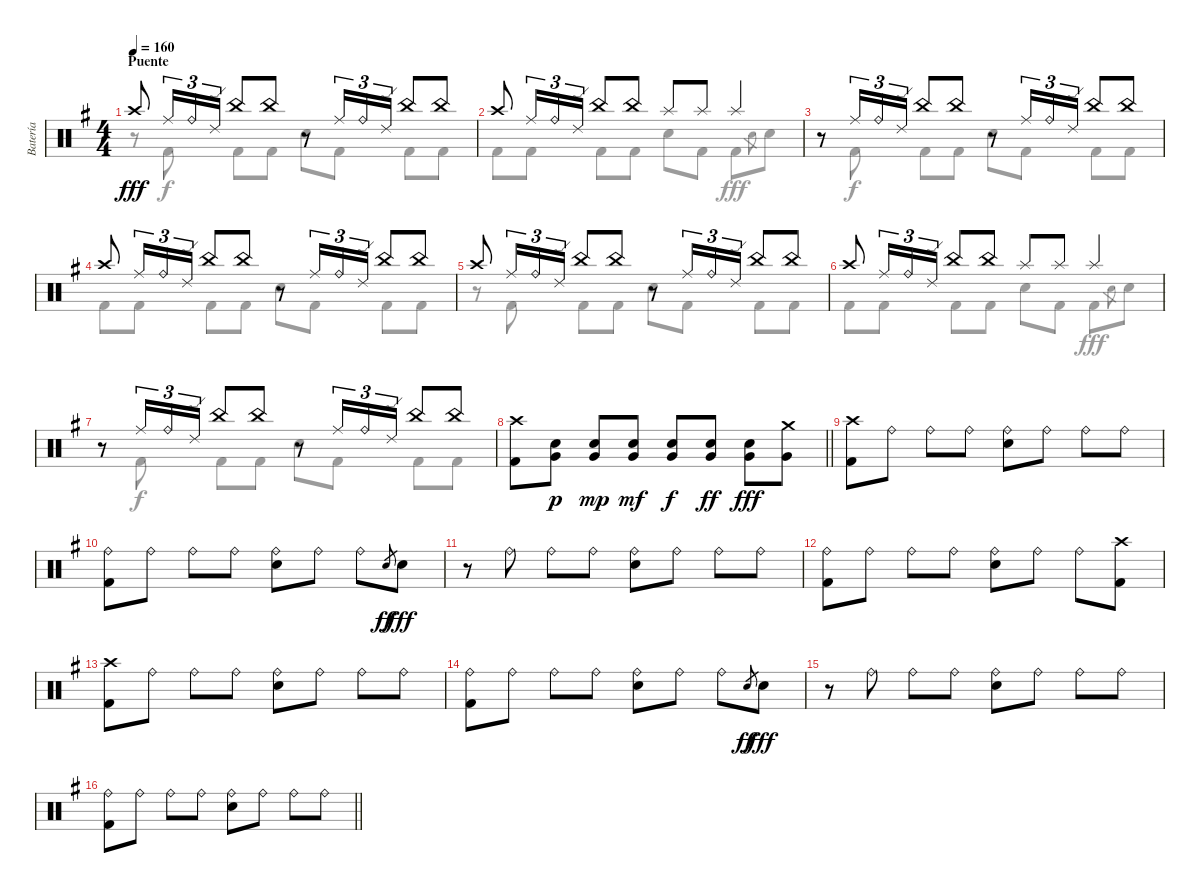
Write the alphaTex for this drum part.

\track ("Batería" "Batería") {instrument percussion}
\staff {score}
\articulation defaults
\voice
\ts (4 4)
\section ("" "Puente")
\tempo 160
\clef neutral
\ks g "Crash high (hit)".8{dy fff} "Ride (middle)".16{tu (3 2)} "Ride (bell)".16{tu (3 2)} "Ride (edge) 2".16{tu (3 2)} "China (hit)".8 "China (hit)".8
r.8 "Ride (middle)".16{tu (3 2)} "Ride (bell)".16{tu (3 2)} "Ride (edge) 2".16{tu (3 2)} "China (hit)".8 "China (hit)".8 |
"Crash high (hit)".8 "Ride (middle)".16{tu (3 2)} "Ride (bell)".16{tu (3 2)} "Ride (edge) 2".16{tu (3 2)} "China (hit)".8 "China (hit)".8 "Splash (hit)".8 "Splash (hit)".8 "Splash (hit)".4 |
r.8 "Ride (middle)".16{tu (3 2)} "Ride (bell)".16{tu (3 2)} "Ride (edge) 2".16{tu (3 2)} "China (hit)".8 "China (hit)".8 r.8 "Ride (middle)".16{tu (3 2)} "Ride (bell)".16{tu (3 2)} "Ride (edge) 2".16{tu (3 2)} "China (hit)".8 "China (hit)".8 |
"Crash high (hit)".8 "Ride (middle)".16{tu (3 2)} "Ride (bell)".16{tu (3 2)} "Ride (edge) 2".16{tu (3 2)} "China (hit)".8 "China (hit)".8 r.8 "Ride (middle)".16{tu (3 2)} "Ride (bell)".16{tu (3 2)} "Ride (edge) 2".16{tu (3 2)} "China (hit)".8 "China (hit)".8 |
"Crash high (hit)".8 "Ride (middle)".16{tu (3 2)} "Ride (bell)".16{tu (3 2)} "Ride (edge) 2".16{tu (3 2)} "China (hit)".8 "China (hit)".8 r.8 "Ride (middle)".16{tu (3 2)} "Ride (bell)".16{tu (3 2)} "Ride (edge) 2".16{tu (3 2)} "China (hit)".8 "China (hit)".8 |
"Crash high (hit)".8 "Ride (middle)".16{tu (3 2)} "Ride (bell)".16{tu (3 2)} "Ride (edge) 2".16{tu (3 2)} "China (hit)".8 "China (hit)".8 "Splash (hit)".8 "Splash (hit)".8 "Splash (hit)".4 |
r.8 "Ride (middle)".16{tu (3 2)} "Ride (bell)".16{tu (3 2)} "Ride (edge) 2".16{tu (3 2)} "China (hit)".8 "China (hit)".8 r.8 "Ride (middle)".16{tu (3 2)} "Ride (bell)".16{tu (3 2)} "Ride (edge) 2".16{tu (3 2)} "China (hit)".8 "China (hit)".8 |
\barLineRight lightlight
("Crash high (hit)" "Kick (hit) 2").8 ("Snare (hit) 2" "Very Low Tom (hit)").8{dy p} ("Snare (hit) 2" "Very Low Tom (hit)").8{dy mp} ("Snare (hit) 2" "Very Low Tom (hit)").8{dy mf} ("Snare (hit) 2" "Very Low Tom (hit)").8{dy f} ("Snare (hit) 2" "Very Low Tom (hit)").8{dy ff} ("Snare (hit) 2" "Very Low Tom (hit)").8{dy fff} ("Crash medium (hit)" "Very Low Tom (hit)").8 |
\section ("" "")
("Crash high (hit)" "Kick (hit) 2").8 "Ride (bell)".8 "Ride (bell)".8 "Ride (bell)".8 ("Ride (bell)" "Snare (hit) 2").8 "Ride (bell)".8 "Ride (bell)".8 "Ride (bell)".8 |
("Ride (bell)" "Kick (hit) 2").8 "Ride (bell)".8 "Ride (bell)".8 "Ride (bell)".8 ("Ride (bell)" "Snare (hit) 2").8 "Ride (bell)".8 "Ride (bell)".8 "Snare (hit) 2".8{gr dy ff} "Snare (hit) 2".8{dy fff} |
r.8 "Ride (bell)".8 "Ride (bell)".8 "Ride (bell)".8 ("Ride (bell)" "Snare (hit) 2").8 "Ride (bell)".8 "Ride (bell)".8 "Ride (bell)".8 |
("Ride (bell)" "Kick (hit) 2").8 "Ride (bell)".8 "Ride (bell)".8 "Ride (bell)".8 ("Ride (bell)" "Snare (hit) 2").8 "Ride (bell)".8 "Ride (bell)".8 ("Crash high (hit)" "Kick (hit) 2").8 |
("Crash high (hit)" "Kick (hit) 2").8 "Ride (bell)".8 "Ride (bell)".8 "Ride (bell)".8 ("Ride (bell)" "Snare (hit) 2").8 "Ride (bell)".8 "Ride (bell)".8 "Ride (bell)".8 |
("Ride (bell)" "Kick (hit) 2").8 "Ride (bell)".8 "Ride (bell)".8 "Ride (bell)".8 ("Ride (bell)" "Snare (hit) 2").8 "Ride (bell)".8 "Ride (bell)".8 "Snare (hit) 2".8{gr dy ff} "Snare (hit) 2".8{dy fff} |
r.8 "Ride (bell)".8 "Ride (bell)".8 "Ride (bell)".8 ("Ride (bell)" "Snare (hit) 2").8 "Ride (bell)".8 "Ride (bell)".8 "Ride (bell)".8 |
\barLineRight lightlight
("Ride (bell)" "Kick (hit) 2").8 "Ride (bell)".8 "Ride (bell)".8 "Ride (bell)".8 ("Ride (bell)" "Snare (hit) 2").8 "Ride (bell)".8 "Ride (bell)".8 "Ride (bell)".8
\voice
\clef neutral
\ottava regular
\simile none
\ks g
r.8{dy f} "Kick (hit) 2".8 "Kick (hit) 2".8 "Kick (hit) 2".8 "Snare (hit) 2".8 "Kick (hit) 2".8 "Kick (hit) 2".8 "Kick (hit) 2".8 |
"Kick (hit) 2".8 "Kick (hit) 2".8 "Kick (hit) 2".8 "Kick (hit) 2".8 "Snare (hit) 2".8 "Kick (hit) 2".8 "Kick (hit) 2".8{dy fff} "Snare (hit) 2".8{gr} "Snare (hit) 2".8 |
r.8 "Kick (hit) 2".8{dy f} "Kick (hit) 2".8 "Kick (hit) 2".8 "Snare (hit) 2".8 "Kick (hit) 2".8 "Kick (hit) 2".8 "Kick (hit) 2".8 |
"Kick (hit) 2".8 "Kick (hit) 2".8 "Kick (hit) 2".8 "Kick (hit) 2".8 "Snare (hit) 2".8 "Kick (hit) 2".8 "Kick (hit) 2".8 "Kick (hit) 2".8 |
r.8 "Kick (hit) 2".8 "Kick (hit) 2".8 "Kick (hit) 2".8 "Snare (hit) 2".8 "Kick (hit) 2".8 "Kick (hit) 2".8 "Kick (hit) 2".8 |
"Kick (hit) 2".8 "Kick (hit) 2".8 "Kick (hit) 2".8 "Kick (hit) 2".8 "Snare (hit) 2".8 "Kick (hit) 2".8 "Kick (hit) 2".8{dy fff} "Snare (hit) 2".8{gr} "Snare (hit) 2".8 |
r.8 "Kick (hit) 2".8{dy f} "Kick (hit) 2".8 "Kick (hit) 2".8 "Snare (hit) 2".8 "Kick (hit) 2".8 "Kick (hit) 2".8 "Kick (hit) 2".8 |
\barLineRight lightlight
|
|
|
|
|
|
|
|
\barLineRight lightlight
